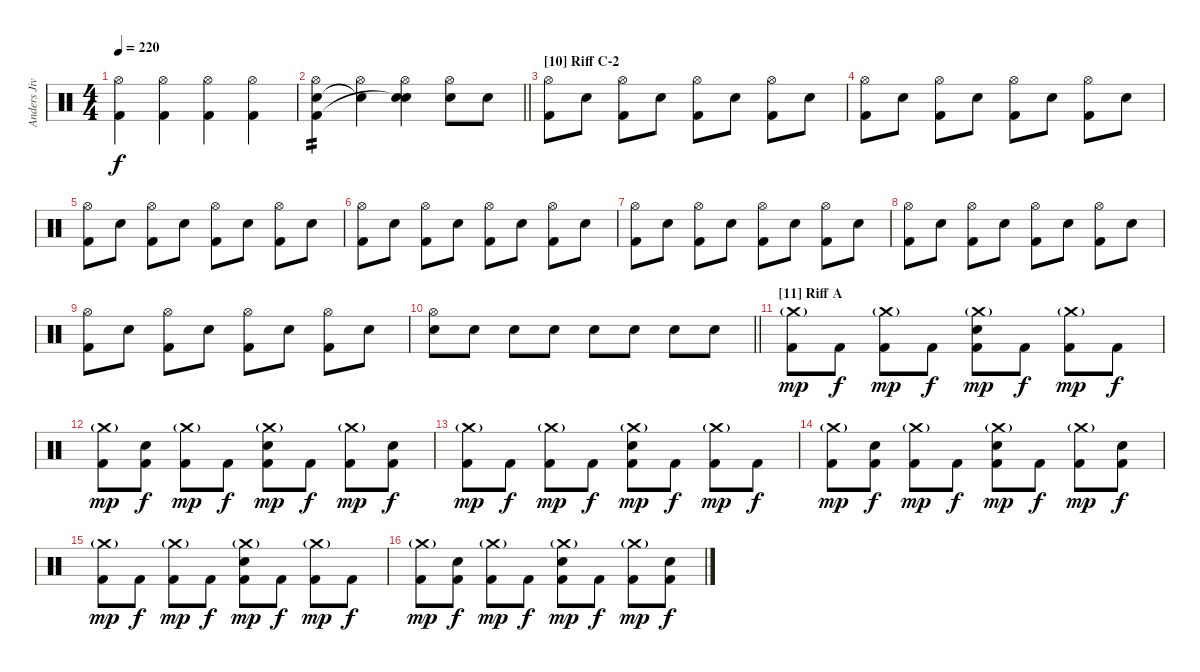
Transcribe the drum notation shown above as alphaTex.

\track ("Anders Jivarp" "Anders Jiv") {instrument percussion}
\staff {score}
\articulation defaults
\ts (4 4)
\tempo 220
\clef neutral
\ks c
("Hi-Hat (open)" "Kick (hit) 2").4{dy f} ("Hi-Hat (open)" "Kick (hit) 2").4 ("Hi-Hat (open)" "Kick (hit) 2").4 ("Hi-Hat (open)" "Kick (hit) 2").4 |
\barLineRight lightlight
("Hi-Hat (open)" "Snare (hit) 2" "Kick (hit) 2").4{tp 2} ("Hi-Hat (open)" "Snare (hit)"{t}).4 ("Hi-Hat (open)" "Snare (hit) 2" "Snare (hit)"{t}).4 ("Hi-Hat (open)" "Snare (hit) 2").8 "Snare (hit) 2".8 |
\section ("" "[10] Riff C-2")
("Hi-Hat (open)" "Kick (hit) 2").8 "Snare (hit) 2".8 ("Hi-Hat (open)" "Kick (hit) 2").8 "Snare (hit) 2".8 ("Hi-Hat (open)" "Kick (hit) 2").8 "Snare (hit) 2".8 ("Hi-Hat (open)" "Kick (hit) 2").8 "Snare (hit) 2".8 |
("Hi-Hat (open)" "Kick (hit) 2").8 "Snare (hit) 2".8 ("Hi-Hat (open)" "Kick (hit) 2").8 "Snare (hit) 2".8 ("Hi-Hat (open)" "Kick (hit) 2").8 "Snare (hit) 2".8 ("Hi-Hat (open)" "Kick (hit) 2").8 "Snare (hit) 2".8 |
("Hi-Hat (open)" "Kick (hit) 2").8 "Snare (hit) 2".8 ("Hi-Hat (open)" "Kick (hit) 2").8 "Snare (hit) 2".8 ("Hi-Hat (open)" "Kick (hit) 2").8 "Snare (hit) 2".8 ("Hi-Hat (open)" "Kick (hit) 2").8 "Snare (hit) 2".8 |
("Hi-Hat (open)" "Kick (hit) 2").8 "Snare (hit) 2".8 ("Hi-Hat (open)" "Kick (hit) 2").8 "Snare (hit) 2".8 ("Hi-Hat (open)" "Kick (hit) 2").8 "Snare (hit) 2".8 ("Hi-Hat (open)" "Kick (hit) 2").8 "Snare (hit) 2".8 |
("Hi-Hat (open)" "Kick (hit) 2").8 "Snare (hit) 2".8 ("Hi-Hat (open)" "Kick (hit) 2").8 "Snare (hit) 2".8 ("Hi-Hat (open)" "Kick (hit) 2").8 "Snare (hit) 2".8 ("Hi-Hat (open)" "Kick (hit) 2").8 "Snare (hit) 2".8 |
("Hi-Hat (open)" "Kick (hit) 2").8 "Snare (hit) 2".8 ("Hi-Hat (open)" "Kick (hit) 2").8 "Snare (hit) 2".8 ("Hi-Hat (open)" "Kick (hit) 2").8 "Snare (hit) 2".8 ("Hi-Hat (open)" "Kick (hit) 2").8 "Snare (hit) 2".8 |
("Hi-Hat (open)" "Kick (hit) 2").8 "Snare (hit) 2".8 ("Hi-Hat (open)" "Kick (hit) 2").8 "Snare (hit) 2".8 ("Hi-Hat (open)" "Kick (hit) 2").8 "Snare (hit) 2".8 ("Hi-Hat (open)" "Kick (hit) 2").8 "Snare (hit) 2".8 |
\barLineRight lightlight
("Hi-Hat (open)" "Snare (hit) 2").8 "Snare (hit) 2".8 "Snare (hit) 2".8 "Snare (hit) 2".8 "Snare (hit) 2".8 "Snare (hit) 2".8 "Snare (hit) 2".8 "Snare (hit) 2".8 |
\section ("" "[11] Riff A")
("Crash medium (hit)"{g} "Kick (hit) 2").8{dy mp} "Kick (hit) 2".8{dy f} ("Crash medium (hit)"{g} "Kick (hit) 2").8{dy mp} "Kick (hit) 2".8{dy f} ("Crash medium (hit)"{g} "Snare (hit) 2" "Kick (hit) 2").8{dy mp} "Kick (hit) 2".8{dy f} ("Crash medium (hit)"{g} "Kick (hit) 2").8{dy mp} "Kick (hit) 2".8{dy f} |
("Crash medium (hit)"{g} "Kick (hit) 2").8{dy mp} ("Snare (hit) 2" "Kick (hit) 2").8{dy f} ("Crash medium (hit)"{g} "Kick (hit) 2").8{dy mp} "Kick (hit) 2".8{dy f} ("Crash medium (hit)"{g} "Snare (hit) 2" "Kick (hit) 2").8{dy mp} "Kick (hit) 2".8{dy f} ("Crash medium (hit)"{g} "Kick (hit) 2").8{dy mp} ("Snare (hit) 2" "Kick (hit) 2").8{dy f} |
("Crash medium (hit)"{g} "Kick (hit) 2").8{dy mp} "Kick (hit) 2".8{dy f} ("Crash medium (hit)"{g} "Kick (hit) 2").8{dy mp} "Kick (hit) 2".8{dy f} ("Crash medium (hit)"{g} "Snare (hit) 2" "Kick (hit) 2").8{dy mp} "Kick (hit) 2".8{dy f} ("Crash medium (hit)"{g} "Kick (hit) 2").8{dy mp} "Kick (hit) 2".8{dy f} |
("Crash medium (hit)"{g} "Kick (hit) 2").8{dy mp} ("Snare (hit) 2" "Kick (hit) 2").8{dy f} ("Crash medium (hit)"{g} "Kick (hit) 2").8{dy mp} "Kick (hit) 2".8{dy f} ("Crash medium (hit)"{g} "Snare (hit) 2" "Kick (hit) 2").8{dy mp} "Kick (hit) 2".8{dy f} ("Crash medium (hit)"{g} "Kick (hit) 2").8{dy mp} ("Snare (hit) 2" "Kick (hit) 2").8{dy f} |
("Crash medium (hit)"{g} "Kick (hit) 2").8{dy mp} "Kick (hit) 2".8{dy f} ("Crash medium (hit)"{g} "Kick (hit) 2").8{dy mp} "Kick (hit) 2".8{dy f} ("Crash medium (hit)"{g} "Snare (hit) 2" "Kick (hit) 2").8{dy mp} "Kick (hit) 2".8{dy f} ("Crash medium (hit)"{g} "Kick (hit) 2").8{dy mp} "Kick (hit) 2".8{dy f} |
("Crash medium (hit)"{g} "Kick (hit) 2").8{dy mp} ("Snare (hit) 2" "Kick (hit) 2").8{dy f} ("Crash medium (hit)"{g} "Kick (hit) 2").8{dy mp} "Kick (hit) 2".8{dy f} ("Crash medium (hit)"{g} "Snare (hit) 2" "Kick (hit) 2").8{dy mp} "Kick (hit) 2".8{dy f} ("Crash medium (hit)"{g} "Kick (hit) 2").8{dy mp} ("Snare (hit) 2" "Kick (hit) 2").8{dy f}
